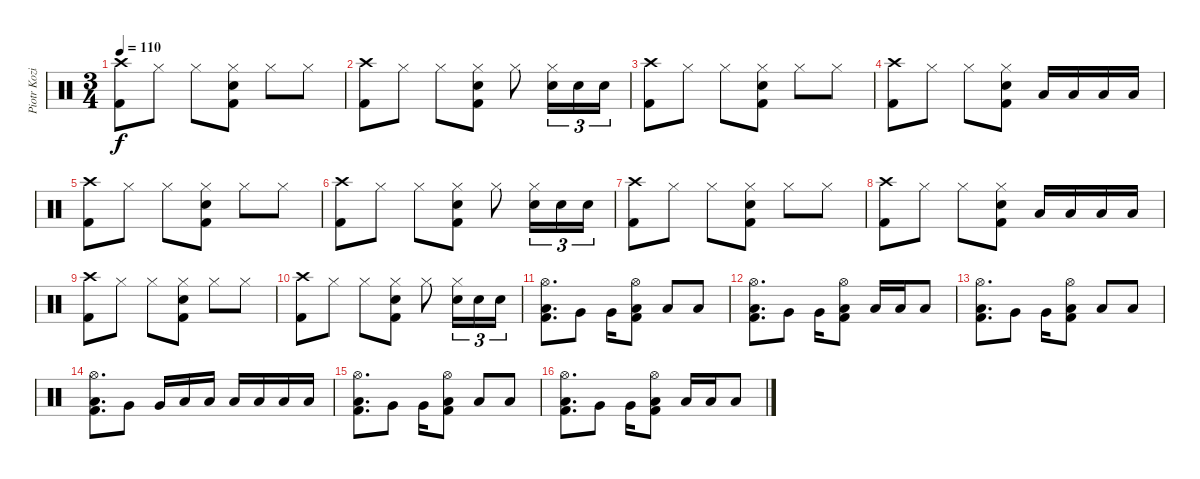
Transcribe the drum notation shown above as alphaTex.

\track ("Piotr Kozieradzki" "Piotr Kozi") {instrument percussion}
\staff {score}
\articulation defaults
\ts (3 4)
\tempo 110
\clef neutral
\ks c
("Crash high (hit)" "Kick (hit) 2").8{dy f} "Hi-Hat (closed)".8 "Hi-Hat (closed)".8 ("Hi-Hat (closed)" "Electric Snare (hit)" "Kick (hit) 2").8 "Hi-Hat (closed)".8 "Hi-Hat (closed)".8 |
("Crash high (hit)" "Kick (hit) 2").8 "Hi-Hat (closed)".8 "Hi-Hat (closed)".8 ("Hi-Hat (closed)" "Electric Snare (hit)" "Kick (hit) 2").8 "Hi-Hat (closed)".8 ("Hi-Hat (closed)" "Electric Snare (hit)").16{tu (3 2)} "Electric Snare (hit)".16{tu (3 2)} "Electric Snare (hit)".16{tu (3 2)} |
("Crash high (hit)" "Kick (hit) 2").8 "Hi-Hat (closed)".8 "Hi-Hat (closed)".8 ("Hi-Hat (closed)" "Electric Snare (hit)" "Kick (hit) 2").8 "Hi-Hat (closed)".8 "Hi-Hat (closed)".8 |
("Crash high (hit)" "Kick (hit) 2").8 "Hi-Hat (closed)".8 "Hi-Hat (closed)".8 ("Hi-Hat (closed)" "Electric Snare (hit)" "Kick (hit) 2").8 "Low Tom (hit)".16 "Low Tom (hit)".16 "Low Tom (hit)".16 "Low Tom (hit)".16 |
("Crash high (hit)" "Kick (hit) 2").8 "Hi-Hat (closed)".8 "Hi-Hat (closed)".8 ("Hi-Hat (closed)" "Electric Snare (hit)" "Kick (hit) 2").8 "Hi-Hat (closed)".8 "Hi-Hat (closed)".8 |
("Crash high (hit)" "Kick (hit) 2").8 "Hi-Hat (closed)".8 "Hi-Hat (closed)".8 ("Hi-Hat (closed)" "Electric Snare (hit)" "Kick (hit) 2").8 "Hi-Hat (closed)".8 ("Hi-Hat (closed)" "Electric Snare (hit)").16{tu (3 2)} "Electric Snare (hit)".16{tu (3 2)} "Electric Snare (hit)".16{tu (3 2)} |
("Crash high (hit)" "Kick (hit) 2").8 "Hi-Hat (closed)".8 "Hi-Hat (closed)".8 ("Hi-Hat (closed)" "Electric Snare (hit)" "Kick (hit) 2").8 "Hi-Hat (closed)".8 "Hi-Hat (closed)".8 |
("Crash high (hit)" "Kick (hit) 2").8 "Hi-Hat (closed)".8 "Hi-Hat (closed)".8 ("Hi-Hat (closed)" "Electric Snare (hit)" "Kick (hit) 2").8 "Low Tom (hit)".16 "Low Tom (hit)".16 "Low Tom (hit)".16 "Low Tom (hit)".16 |
("Crash high (hit)" "Kick (hit) 2").8 "Hi-Hat (closed)".8 "Hi-Hat (closed)".8 ("Hi-Hat (closed)" "Electric Snare (hit)" "Kick (hit) 2").8 "Hi-Hat (closed)".8 "Hi-Hat (closed)".8 |
("Crash high (hit)" "Kick (hit) 2").8 "Hi-Hat (closed)".8 "Hi-Hat (closed)".8 ("Hi-Hat (closed)" "Electric Snare (hit)" "Kick (hit) 2").8 "Hi-Hat (closed)".8 ("Hi-Hat (closed)" "Electric Snare (hit)").16{tu (3 2)} "Electric Snare (hit)".16{tu (3 2)} "Electric Snare (hit)".16{tu (3 2)} |
("Hi-Hat (open)" "Low Tom (hit)" "Kick (hit) 2").8{d} "Very Low Tom (hit)".8 "Very Low Tom (hit)".16 ("Hi-Hat (open)" "Low Tom (hit)" "Kick (hit) 2").8 "Low Tom (hit)".8 "Low Tom (hit)".8 |
("Hi-Hat (open)" "Low Tom (hit)" "Kick (hit) 2").8{d} "Very Low Tom (hit)".8 "Very Low Tom (hit)".16 ("Hi-Hat (open)" "Low Tom (hit)" "Kick (hit) 2").8 "Low Tom (hit)".16 "Low Tom (hit)".16 "Low Tom (hit)".8 |
("Hi-Hat (open)" "Low Tom (hit)" "Kick (hit) 2").8{d} "Very Low Tom (hit)".8 "Very Low Tom (hit)".16 ("Hi-Hat (open)" "Low Tom (hit)" "Kick (hit) 2").8 "Low Tom (hit)".8 "Low Tom (hit)".8 |
("Hi-Hat (open)" "Low Tom (hit)" "Kick (hit) 2").8{d} "Very Low Tom (hit)".8 "Very Low Tom (hit)".16 "Low Tom (hit)".16 "Low Tom (hit)".16 "Low Tom (hit)".16 "Low Tom (hit)".16 "Low Tom (hit)".16 "Low Tom (hit)".16 |
("Hi-Hat (open)" "Low Tom (hit)" "Kick (hit) 2").8{d} "Very Low Tom (hit)".8 "Very Low Tom (hit)".16 ("Hi-Hat (open)" "Low Tom (hit)" "Kick (hit) 2").8 "Low Tom (hit)".8 "Low Tom (hit)".8 |
("Hi-Hat (open)" "Low Tom (hit)" "Kick (hit) 2").8{d} "Very Low Tom (hit)".8 "Very Low Tom (hit)".16 ("Hi-Hat (open)" "Low Tom (hit)" "Kick (hit) 2").8 "Low Tom (hit)".16 "Low Tom (hit)".16 "Low Tom (hit)".8
